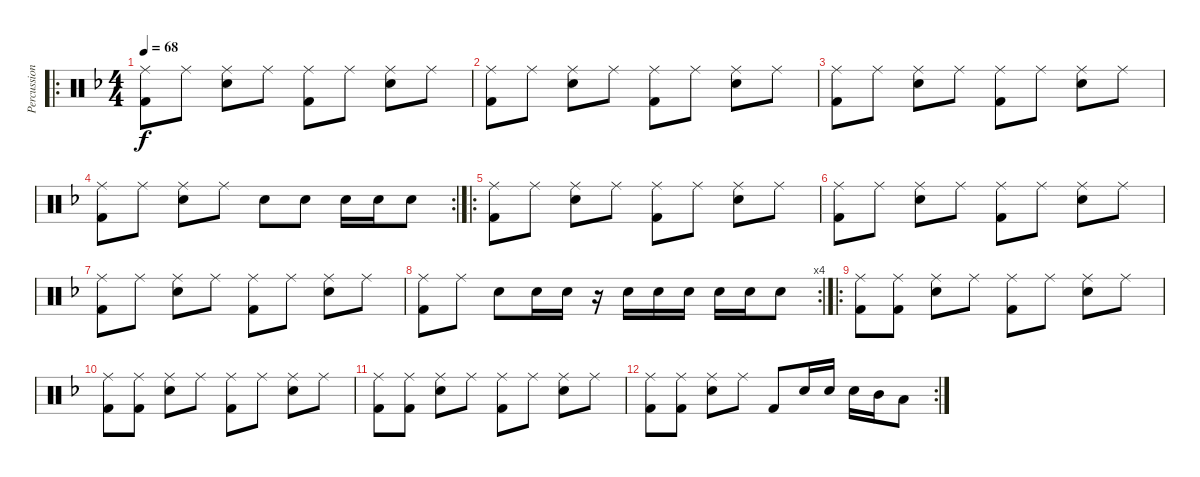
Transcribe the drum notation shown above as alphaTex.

\track ("Percussion" "Percussion") {instrument percussion}
\staff {score}
\articulation defaults
\ro
\ts (4 4)
\tempo 68
\clef neutral
\ks f
("Ride (middle)" "Kick (hit) 2").8{dy f} "Ride (middle)".8 ("Ride (middle)" "Snare (hit) 2").8 "Ride (middle)".8 ("Ride (middle)" "Kick (hit) 2").8 "Ride (middle)".8 ("Ride (middle)" "Snare (hit) 2").8 "Ride (middle)".8 |
("Ride (middle)" "Kick (hit) 2").8 "Ride (middle)".8 ("Ride (middle)" "Snare (hit) 2").8 "Ride (middle)".8 ("Ride (middle)" "Kick (hit) 2").8 "Ride (middle)".8 ("Ride (middle)" "Snare (hit) 2").8 "Ride (middle)".8 |
("Ride (middle)" "Kick (hit) 2").8 "Ride (middle)".8 ("Ride (middle)" "Snare (hit) 2").8 "Ride (middle)".8 ("Ride (middle)" "Kick (hit) 2").8 "Ride (middle)".8 ("Ride (middle)" "Snare (hit) 2").8 "Ride (middle)".8 |
\rc 2
("Ride (middle)" "Kick (hit) 2").8 "Ride (middle)".8 ("Ride (middle)" "Snare (hit) 2").8 "Ride (middle)".8 "Snare (hit) 2".8 "Snare (hit) 2".8 "Snare (hit) 2".16 "Snare (hit) 2".16 "Snare (hit) 2".8 |
\ro
("Ride (middle)" "Kick (hit) 2").8 "Ride (middle)".8 ("Ride (middle)" "Snare (hit) 2").8 "Ride (middle)".8 ("Ride (middle)" "Kick (hit) 2").8 "Ride (middle)".8 ("Ride (middle)" "Snare (hit) 2").8 "Ride (middle)".8 |
("Ride (middle)" "Kick (hit) 2").8 "Ride (middle)".8 ("Ride (middle)" "Snare (hit) 2").8 "Ride (middle)".8 ("Ride (middle)" "Kick (hit) 2").8 "Ride (middle)".8 ("Ride (middle)" "Snare (hit) 2").8 "Ride (middle)".8 |
("Ride (middle)" "Kick (hit) 2").8 "Ride (middle)".8 ("Ride (middle)" "Snare (hit) 2").8 "Ride (middle)".8 ("Ride (middle)" "Kick (hit) 2").8 "Ride (middle)".8 ("Ride (middle)" "Snare (hit) 2").8 "Ride (middle)".8 |
\rc 4
("Ride (middle)" "Kick (hit) 2").8 "Ride (middle)".8 "Snare (hit) 2".8 "Snare (hit) 2".16 "Snare (hit) 2".16 r.16 "Snare (hit) 2".16 "Snare (hit) 2".16 "Snare (hit) 2".16 "Snare (hit) 2".16 "Snare (hit) 2".16 "Snare (hit) 2".8 |
\ro
("Ride (middle)" "Kick (hit) 2").8 ("Ride (middle)" "Kick (hit) 2").8 ("Ride (middle)" "Snare (hit) 2").8 "Ride (middle)".8 ("Ride (middle)" "Kick (hit) 2").8 "Ride (middle)".8 ("Ride (middle)" "Snare (hit) 2").8 "Ride (middle)".8 |
("Ride (middle)" "Kick (hit) 2").8 ("Ride (middle)" "Kick (hit) 2").8 ("Ride (middle)" "Snare (hit) 2").8 "Ride (middle)".8 ("Ride (middle)" "Kick (hit) 2").8 "Ride (middle)".8 ("Ride (middle)" "Snare (hit) 2").8 "Ride (middle)".8 |
("Ride (middle)" "Kick (hit) 2").8 ("Ride (middle)" "Kick (hit) 2").8 ("Ride (middle)" "Snare (hit) 2").8 "Ride (middle)".8 ("Ride (middle)" "Kick (hit) 2").8 "Ride (middle)".8 ("Ride (middle)" "Snare (hit) 2").8 "Ride (middle)".8 |
\rc 2
("Ride (middle)" "Kick (hit) 2").8 ("Ride (middle)" "Kick (hit) 2").8 ("Ride (middle)" "Snare (hit) 2").8 "Ride (middle)".8 "Kick (hit) 2".8 "Snare (hit) 2".16 "Snare (hit) 2".16 "Snare (hit) 2".16 "Mid Tom (hit)".16 "Low Floor Tom (hit)".8
